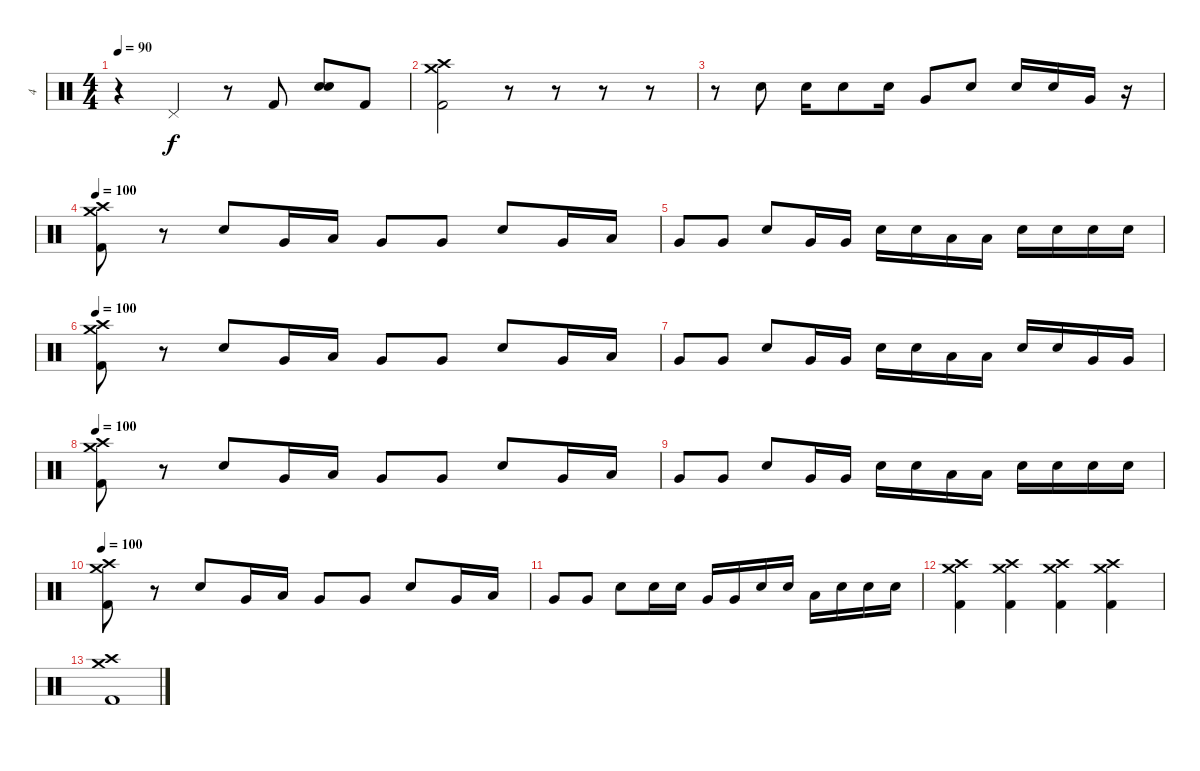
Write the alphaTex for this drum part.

\track ("4" "4") {instrument percussion}
\staff
\articulation defaults
\ts (4 4)
\tempo 90
\clef neutral
\ks c
r.4{dy f} "Pedal Hi-Hat (hit)".4 r.8 "Kick (hit) 2".8 ("Electric Snare (hit)" "Electric Snare (hit)").8{bd 60} "Kick (hit) 2".8 |
("Kick (hit) 2" "Crash high (hit)" "Crash medium (hit)").2 r.8 r.8 r.8 r.8 |
r.8 "Electric Snare (hit)".8 "Electric Snare (hit)".16 "Electric Snare (hit)".8 "Electric Snare (hit)".16 "Very Low Tom (hit)".8 "Electric Snare (hit)".8 "Electric Snare (hit)".16 "Electric Snare (hit)".16 "Very Low Tom (hit)".16 r.16 |
\tempo 100
("Kick (hit) 2" "Crash high (hit)" "Crash medium (hit)").8 r.8 "Electric Snare (hit)".8 "Very Low Tom (hit)".16 "Low Tom (hit)".16 "Very Low Tom (hit)".8 "Very Low Tom (hit)".8 "Electric Snare (hit)".8 "Very Low Tom (hit)".16 "Low Tom (hit)".16 |
"Very Low Tom (hit)".8 "Very Low Tom (hit)".8 "Electric Snare (hit)".8 "Very Low Tom (hit)".16 "Very Low Tom (hit)".16 "Electric Snare (hit)".16 "Electric Snare (hit)".16 "Low Tom (hit)".16 "Low Tom (hit)".16 "Electric Snare (hit)".16 "Electric Snare (hit)".16 "Electric Snare (hit)".16 "Electric Snare (hit)".16 |
\tempo 100
("Kick (hit) 2" "Crash high (hit)" "Crash medium (hit)").8 r.8 "Electric Snare (hit)".8 "Very Low Tom (hit)".16 "Low Tom (hit)".16 "Very Low Tom (hit)".8 "Very Low Tom (hit)".8 "Electric Snare (hit)".8 "Very Low Tom (hit)".16 "Low Tom (hit)".16 |
"Very Low Tom (hit)".8 "Very Low Tom (hit)".8 "Electric Snare (hit)".8 "Very Low Tom (hit)".16 "Very Low Tom (hit)".16 "Electric Snare (hit)".16 "Electric Snare (hit)".16 "Low Tom (hit)".16 "Low Tom (hit)".16 "Electric Snare (hit)".16 "Electric Snare (hit)".16 "Very Low Tom (hit)".16 "Very Low Tom (hit)".16 |
\tempo 100
("Kick (hit) 2" "Crash high (hit)" "Crash medium (hit)").8 r.8 "Electric Snare (hit)".8 "Very Low Tom (hit)".16 "Low Tom (hit)".16 "Very Low Tom (hit)".8 "Very Low Tom (hit)".8 "Electric Snare (hit)".8 "Very Low Tom (hit)".16 "Low Tom (hit)".16 |
"Very Low Tom (hit)".8 "Very Low Tom (hit)".8 "Electric Snare (hit)".8 "Very Low Tom (hit)".16 "Very Low Tom (hit)".16 "Electric Snare (hit)".16 "Electric Snare (hit)".16 "Low Tom (hit)".16 "Low Tom (hit)".16 "Electric Snare (hit)".16 "Electric Snare (hit)".16 "Electric Snare (hit)".16 "Electric Snare (hit)".16 |
\tempo 100
("Kick (hit) 2" "Crash high (hit)" "Crash medium (hit)").8 r.8 "Electric Snare (hit)".8 "Very Low Tom (hit)".16 "Low Tom (hit)".16 "Very Low Tom (hit)".8 "Very Low Tom (hit)".8 "Electric Snare (hit)".8 "Very Low Tom (hit)".16 "Low Tom (hit)".16 |
"Very Low Tom (hit)".8 "Very Low Tom (hit)".8 "Electric Snare (hit)".8 "Electric Snare (hit)".16 "Electric Snare (hit)".16 "Very Low Tom (hit)".16 "Very Low Tom (hit)".16 "Electric Snare (hit)".16 "Electric Snare (hit)".16 "Low Tom (hit)".16 "Electric Snare (hit)".16 "Electric Snare (hit)".16 "Electric Snare (hit)".16 |
("Kick (hit) 2" "Crash high (hit)" "Crash medium (hit)").4 ("Kick (hit) 2" "Crash high (hit)" "Crash medium (hit)").4 ("Kick (hit) 2" "Crash high (hit)" "Crash medium (hit)").4 ("Kick (hit) 2" "Crash high (hit)" "Crash medium (hit)").4 |
("Kick (hit) 2" "Crash high (hit)" "Crash medium (hit)").1
